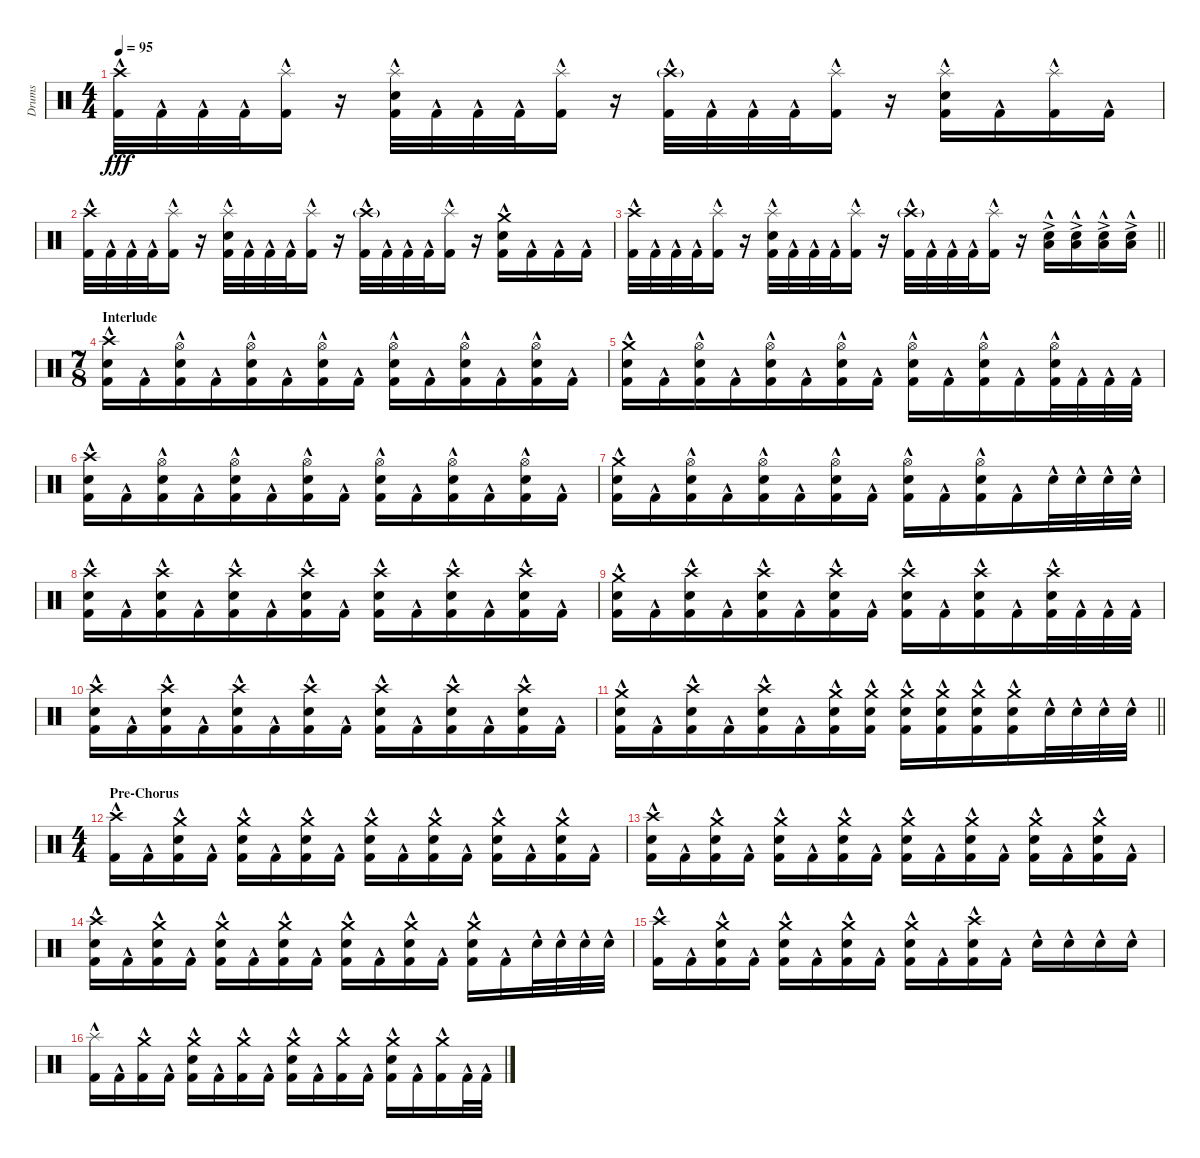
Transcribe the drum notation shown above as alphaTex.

\track ("Drums" "Drums") {instrument percussion}
\staff {score}
\articulation defaults
\ts (4 4)
\tempo 95
\clef neutral
\ks c
("Crash high (hit)" "Kick (hit) 2"{hac}).32{dy fff} "Kick (hit) 2"{hac}.32 "Kick (hit) 2"{hac}.32 "Kick (hit) 2"{hac}.32 ("Splash (hit)" "Kick (hit) 2"{hac}).16 r.16 ("Splash (hit)" "Electric Snare (hit)"{hac} "Kick (hit) 2"{hac}).32 "Kick (hit) 2"{hac}.32 "Kick (hit) 2"{hac}.32 "Kick (hit) 2"{hac}.32 ("Splash (hit)" "Kick (hit) 2"{hac}).16 r.16 ("Crash high (hit)"{g} "Kick (hit) 2"{hac}).32 "Kick (hit) 2"{hac}.32 "Kick (hit) 2"{hac}.32 "Kick (hit) 2"{hac}.32 ("Splash (hit)" "Kick (hit) 2"{hac}).16 r.16 ("Splash (hit)" "Electric Snare (hit)"{hac} "Kick (hit) 2"{hac}).16 "Kick (hit) 2"{hac}.16 ("Splash (hit)" "Kick (hit) 2"{hac}).16 "Kick (hit) 2"{hac}.16 |
("Crash high (hit)" "Kick (hit) 2"{hac}).32 "Kick (hit) 2"{hac}.32 "Kick (hit) 2"{hac}.32 "Kick (hit) 2"{hac}.32 ("Splash (hit)" "Kick (hit) 2"{hac}).16 r.16 ("Splash (hit)" "Electric Snare (hit)"{hac} "Kick (hit) 2"{hac}).32 "Kick (hit) 2"{hac}.32 "Kick (hit) 2"{hac}.32 "Kick (hit) 2"{hac}.32 ("Splash (hit)" "Kick (hit) 2"{hac}).16 r.16 ("Crash high (hit)"{g} "Kick (hit) 2"{hac}).32 "Kick (hit) 2"{hac}.32 "Kick (hit) 2"{hac}.32 "Kick (hit) 2"{hac}.32 ("Splash (hit)" "Kick (hit) 2"{hac}).16 r.16 ("Crash medium (hit)" "Electric Snare (hit)"{hac} "Kick (hit) 2"{hac}).16 "Kick (hit) 2"{hac}.16 "Kick (hit) 2"{hac}.16 "Kick (hit) 2"{hac}.16 |
\barLineRight lightlight
("Crash high (hit)" "Kick (hit) 2"{hac}).32 "Kick (hit) 2"{hac}.32 "Kick (hit) 2"{hac}.32 "Kick (hit) 2"{hac}.32 ("Splash (hit)" "Kick (hit) 2"{hac}).16 r.16 ("Splash (hit)" "Electric Snare (hit)"{hac} "Kick (hit) 2"{hac}).32 "Kick (hit) 2"{hac}.32 "Kick (hit) 2"{hac}.32 "Kick (hit) 2"{hac}.32 ("Splash (hit)" "Kick (hit) 2"{hac}).16 r.16 ("Crash high (hit)"{g} "Kick (hit) 2"{hac}).32 "Kick (hit) 2"{hac}.32 "Kick (hit) 2"{hac}.32 "Kick (hit) 2"{hac}.32 ("Splash (hit)" "Kick (hit) 2"{hac}).16 r.16 ("Low Floor Tom (hit)"{ac} "Electric Snare (hit)"{hac}).16{bd 60} ("Low Floor Tom (hit)"{ac} "Electric Snare (hit)"{hac}).16{bd 60} ("Low Floor Tom (hit)"{ac} "Electric Snare (hit)"{hac}).16{bd 60} ("Low Floor Tom (hit)"{ac} "Electric Snare (hit)"{hac}).16{bd 60} |
\ts (7 8)
\section ("" "Interlude")
("Crash high (hit)" "Electric Snare (hit)"{hac} "Kick (hit) 2"{hac}).16 "Kick (hit) 2"{hac}.16 ("Hi-Hat (open)" "Electric Snare (hit)"{hac} "Kick (hit) 2"{hac}).16 "Kick (hit) 2"{hac}.16 ("Hi-Hat (open)" "Electric Snare (hit)"{hac} "Kick (hit) 2"{hac}).16 "Kick (hit) 2"{hac}.16 ("Hi-Hat (open)" "Electric Snare (hit)"{hac} "Kick (hit) 2"{hac}).16 "Kick (hit) 2"{hac}.16 ("Hi-Hat (open)" "Electric Snare (hit)"{hac} "Kick (hit) 2"{hac}).16 "Kick (hit) 2"{hac}.16 ("Hi-Hat (open)" "Electric Snare (hit)"{hac} "Kick (hit) 2"{hac}).16 "Kick (hit) 2"{hac}.16 ("Hi-Hat (open)" "Electric Snare (hit)"{hac} "Kick (hit) 2"{hac}).16 "Kick (hit) 2"{hac}.16 |
("Crash medium (hit)" "Electric Snare (hit)"{hac} "Kick (hit) 2"{hac}).16 "Kick (hit) 2"{hac}.16 ("Hi-Hat (open)" "Electric Snare (hit)"{hac} "Kick (hit) 2"{hac}).16 "Kick (hit) 2"{hac}.16 ("Hi-Hat (open)" "Electric Snare (hit)"{hac} "Kick (hit) 2"{hac}).16 "Kick (hit) 2"{hac}.16 ("Hi-Hat (open)" "Electric Snare (hit)"{hac} "Kick (hit) 2"{hac}).16 "Kick (hit) 2"{hac}.16 ("Hi-Hat (open)" "Electric Snare (hit)"{hac} "Kick (hit) 2"{hac}).16 "Kick (hit) 2"{hac}.16 ("Hi-Hat (open)" "Electric Snare (hit)"{hac} "Kick (hit) 2"{hac}).16 "Kick (hit) 2"{hac}.16 ("Hi-Hat (open)" "Electric Snare (hit)"{hac} "Kick (hit) 2"{hac}).32 "Kick (hit) 2"{hac}.32 "Kick (hit) 2"{hac}.32 "Kick (hit) 2"{hac}.32 |
("Crash high (hit)" "Electric Snare (hit)"{hac} "Kick (hit) 2"{hac}).16 "Kick (hit) 2"{hac}.16 ("Hi-Hat (open)" "Electric Snare (hit)"{hac} "Kick (hit) 2"{hac}).16 "Kick (hit) 2"{hac}.16 ("Hi-Hat (open)" "Electric Snare (hit)"{hac} "Kick (hit) 2"{hac}).16 "Kick (hit) 2"{hac}.16 ("Hi-Hat (open)" "Electric Snare (hit)"{hac} "Kick (hit) 2"{hac}).16 "Kick (hit) 2"{hac}.16 ("Hi-Hat (open)" "Electric Snare (hit)"{hac} "Kick (hit) 2"{hac}).16 "Kick (hit) 2"{hac}.16 ("Hi-Hat (open)" "Electric Snare (hit)"{hac} "Kick (hit) 2"{hac}).16 "Kick (hit) 2"{hac}.16 ("Hi-Hat (open)" "Electric Snare (hit)"{hac} "Kick (hit) 2"{hac}).16 "Kick (hit) 2"{hac}.16 |
("Crash medium (hit)" "Electric Snare (hit)"{hac} "Kick (hit) 2"{hac}).16 "Kick (hit) 2"{hac}.16 ("Hi-Hat (open)" "Electric Snare (hit)"{hac} "Kick (hit) 2"{hac}).16 "Kick (hit) 2"{hac}.16 ("Hi-Hat (open)" "Electric Snare (hit)"{hac} "Kick (hit) 2"{hac}).16 "Kick (hit) 2"{hac}.16 ("Hi-Hat (open)" "Electric Snare (hit)"{hac} "Kick (hit) 2"{hac}).16 "Kick (hit) 2"{hac}.16 ("Hi-Hat (open)" "Electric Snare (hit)"{hac} "Kick (hit) 2"{hac}).16 "Kick (hit) 2"{hac}.16 ("Hi-Hat (open)" "Electric Snare (hit)"{hac} "Kick (hit) 2"{hac}).16 "Kick (hit) 2"{hac}.16 "Electric Snare (hit)"{hac}.32 "Electric Snare (hit)"{hac}.32 "Electric Snare (hit)"{hac}.32 "Electric Snare (hit)"{hac}.32 |
("Crash high (hit)" "Electric Snare (hit)"{hac} "Kick (hit) 2"{hac}).16 "Kick (hit) 2"{hac}.16 ("Crash high (hit)" "Electric Snare (hit)"{hac} "Kick (hit) 2"{hac}).16 "Kick (hit) 2"{hac}.16 ("Crash high (hit)" "Electric Snare (hit)"{hac} "Kick (hit) 2"{hac}).16 "Kick (hit) 2"{hac}.16 ("Crash high (hit)" "Electric Snare (hit)"{hac} "Kick (hit) 2"{hac}).16 "Kick (hit) 2"{hac}.16 ("Crash high (hit)" "Electric Snare (hit)"{hac} "Kick (hit) 2"{hac}).16 "Kick (hit) 2"{hac}.16 ("Crash high (hit)" "Electric Snare (hit)"{hac} "Kick (hit) 2"{hac}).16 "Kick (hit) 2"{hac}.16 ("Crash high (hit)" "Electric Snare (hit)"{hac} "Kick (hit) 2"{hac}).16 "Kick (hit) 2"{hac}.16 |
("Crash medium (hit)" "Electric Snare (hit)"{hac} "Kick (hit) 2"{hac}).16 "Kick (hit) 2"{hac}.16 ("Crash high (hit)" "Electric Snare (hit)"{hac} "Kick (hit) 2"{hac}).16 "Kick (hit) 2"{hac}.16 ("Crash high (hit)" "Electric Snare (hit)"{hac} "Kick (hit) 2"{hac}).16 "Kick (hit) 2"{hac}.16 ("Crash high (hit)" "Electric Snare (hit)"{hac} "Kick (hit) 2"{hac}).16 "Kick (hit) 2"{hac}.16 ("Crash high (hit)" "Electric Snare (hit)"{hac} "Kick (hit) 2"{hac}).16 "Kick (hit) 2"{hac}.16 ("Crash high (hit)" "Electric Snare (hit)"{hac} "Kick (hit) 2"{hac}).16 "Kick (hit) 2"{hac}.16 ("Crash high (hit)" "Electric Snare (hit)"{hac} "Kick (hit) 2"{hac}).32 "Kick (hit) 2"{hac}.32 "Kick (hit) 2"{hac}.32 "Kick (hit) 2"{hac}.32 |
("Crash high (hit)" "Electric Snare (hit)"{hac} "Kick (hit) 2"{hac}).16 "Kick (hit) 2"{hac}.16 ("Crash high (hit)" "Electric Snare (hit)"{hac} "Kick (hit) 2"{hac}).16 "Kick (hit) 2"{hac}.16 ("Crash high (hit)" "Electric Snare (hit)"{hac} "Kick (hit) 2"{hac}).16 "Kick (hit) 2"{hac}.16 ("Crash high (hit)" "Electric Snare (hit)"{hac} "Kick (hit) 2"{hac}).16 "Kick (hit) 2"{hac}.16 ("Crash high (hit)" "Electric Snare (hit)"{hac} "Kick (hit) 2"{hac}).16 "Kick (hit) 2"{hac}.16 ("Crash high (hit)" "Electric Snare (hit)"{hac} "Kick (hit) 2"{hac}).16 "Kick (hit) 2"{hac}.16 ("Crash high (hit)" "Electric Snare (hit)"{hac} "Kick (hit) 2"{hac}).16 "Kick (hit) 2"{hac}.16 |
\barLineRight lightlight
("Crash medium (hit)" "Electric Snare (hit)"{hac} "Kick (hit) 2"{hac}).16 "Kick (hit) 2"{hac}.16 ("Crash high (hit)" "Electric Snare (hit)"{hac} "Kick (hit) 2"{hac}).16 "Kick (hit) 2"{hac}.16 ("Crash high (hit)" "Electric Snare (hit)"{hac} "Kick (hit) 2"{hac}).16 "Kick (hit) 2"{hac}.16 ("Crash medium (hit)" "Electric Snare (hit)"{hac} "Kick (hit) 2"{hac}).16 ("Crash medium (hit)" "Electric Snare (hit)"{hac} "Kick (hit) 2"{hac}).16 ("Crash medium (hit)" "Electric Snare (hit)"{hac} "Kick (hit) 2"{hac}).16 ("Crash medium (hit)" "Electric Snare (hit)"{hac} "Kick (hit) 2"{hac}).16 ("Crash medium (hit)" "Electric Snare (hit)"{hac} "Kick (hit) 2"{hac}).16 ("Crash medium (hit)" "Electric Snare (hit)"{hac} "Kick (hit) 2"{hac}).16 "Electric Snare (hit)"{hac}.32 "Electric Snare (hit)"{hac}.32 "Electric Snare (hit)"{hac}.32 "Electric Snare (hit)"{hac}.32 |
\ts (4 4)
\section ("" "Pre-Chorus")
("Crash high (hit)" "Kick (hit) 2"{hac}).16 "Kick (hit) 2"{hac}.16 ("Crash medium (hit)" "Electric Snare (hit)"{hac} "Kick (hit) 2"{hac}).16 "Kick (hit) 2"{hac}.16 ("Crash medium (hit)" "Electric Snare (hit)"{hac} "Kick (hit) 2"{hac}).16 "Kick (hit) 2"{hac}.16 ("Crash medium (hit)" "Electric Snare (hit)"{hac} "Kick (hit) 2"{hac}).16 "Kick (hit) 2"{hac}.16 ("Crash medium (hit)" "Electric Snare (hit)"{hac} "Kick (hit) 2"{hac}).16 "Kick (hit) 2"{hac}.16 ("Crash medium (hit)" "Electric Snare (hit)"{hac} "Kick (hit) 2"{hac}).16 "Kick (hit) 2"{hac}.16 ("Crash medium (hit)" "Electric Snare (hit)"{hac} "Kick (hit) 2"{hac}).16 "Kick (hit) 2"{hac}.16 ("Crash medium (hit)" "Electric Snare (hit)"{hac} "Kick (hit) 2"{hac}).16 "Kick (hit) 2"{hac}.16 |
("Crash high (hit)" "Electric Snare (hit)"{hac} "Kick (hit) 2"{hac}).16 "Kick (hit) 2"{hac}.16 ("Crash medium (hit)" "Electric Snare (hit)"{hac} "Kick (hit) 2"{hac}).16 "Kick (hit) 2"{hac}.16 ("Crash medium (hit)" "Electric Snare (hit)"{hac} "Kick (hit) 2"{hac}).16 "Kick (hit) 2"{hac}.16 ("Crash medium (hit)" "Electric Snare (hit)"{hac} "Kick (hit) 2"{hac}).16 "Kick (hit) 2"{hac}.16 ("Crash medium (hit)" "Electric Snare (hit)"{hac} "Kick (hit) 2"{hac}).16 "Kick (hit) 2"{hac}.16 ("Crash medium (hit)" "Electric Snare (hit)"{hac} "Kick (hit) 2"{hac}).16 "Kick (hit) 2"{hac}.16 ("Crash medium (hit)" "Electric Snare (hit)"{hac} "Kick (hit) 2"{hac}).16 "Kick (hit) 2"{hac}.16 ("Crash medium (hit)" "Electric Snare (hit)"{hac} "Kick (hit) 2"{hac}).16 "Kick (hit) 2"{hac}.16 |
("Crash high (hit)" "Electric Snare (hit)"{hac} "Kick (hit) 2"{hac}).16 "Kick (hit) 2"{hac}.16 ("Crash medium (hit)" "Electric Snare (hit)"{hac} "Kick (hit) 2"{hac}).16 "Kick (hit) 2"{hac}.16 ("Crash medium (hit)" "Electric Snare (hit)"{hac} "Kick (hit) 2"{hac}).16 "Kick (hit) 2"{hac}.16 ("Crash medium (hit)" "Electric Snare (hit)"{hac} "Kick (hit) 2"{hac}).16 "Kick (hit) 2"{hac}.16 ("Crash medium (hit)" "Electric Snare (hit)"{hac} "Kick (hit) 2"{hac}).16 "Kick (hit) 2"{hac}.16 ("Crash medium (hit)" "Electric Snare (hit)"{hac} "Kick (hit) 2"{hac}).16 "Kick (hit) 2"{hac}.16 ("Crash medium (hit)" "Electric Snare (hit)"{hac} "Kick (hit) 2"{hac}).16 "Kick (hit) 2"{hac}.16 "Electric Snare (hit)"{hac}.32 "Electric Snare (hit)"{hac}.32 "Electric Snare (hit)"{hac}.32 "Electric Snare (hit)"{hac}.32 |
("Crash high (hit)" "Kick (hit) 2"{hac}).16 "Kick (hit) 2"{hac}.16 ("Crash medium (hit)" "Electric Snare (hit)"{hac} "Kick (hit) 2"{hac}).16 "Kick (hit) 2"{hac}.16 ("Crash medium (hit)" "Electric Snare (hit)"{hac} "Kick (hit) 2"{hac}).16 "Kick (hit) 2"{hac}.16 ("Crash medium (hit)" "Electric Snare (hit)"{hac} "Kick (hit) 2"{hac}).16 "Kick (hit) 2"{hac}.16 ("Crash medium (hit)" "Electric Snare (hit)"{hac} "Kick (hit) 2"{hac}).16 "Kick (hit) 2"{hac}.16 ("Crash high (hit)" "Electric Snare (hit)"{hac} "Kick (hit) 2"{hac}).16 "Kick (hit) 2"{hac}.16 "Electric Snare (hit)"{hac}.16 "Electric Snare (hit)"{hac}.16 "Electric Snare (hit)"{hac}.16 "Electric Snare (hit)"{hac}.16 |
("Splash (hit)"{hac} "Kick (hit) 2"{hac}).16 "Kick (hit) 2"{hac}.16 ("Crash medium (hit)" "Kick (hit) 2"{hac}).16 "Kick (hit) 2"{hac}.16 ("Crash medium (hit)" "Electric Snare (hit)"{hac} "Kick (hit) 2"{hac}).16 "Kick (hit) 2"{hac}.16 ("Crash medium (hit)" "Kick (hit) 2"{hac}).16 "Kick (hit) 2"{hac}.16 ("Crash medium (hit)" "Electric Snare (hit)"{hac} "Kick (hit) 2"{hac}).16 "Kick (hit) 2"{hac}.16 ("Crash medium (hit)" "Kick (hit) 2"{hac}).16 "Kick (hit) 2"{hac}.16 ("Crash medium (hit)" "Electric Snare (hit)"{hac} "Kick (hit) 2"{hac}).16 "Kick (hit) 2"{hac}.16 ("Crash medium (hit)" "Kick (hit) 2"{hac}).16 "Kick (hit) 2"{hac}.32 "Kick (hit) 2"{hac}.32
